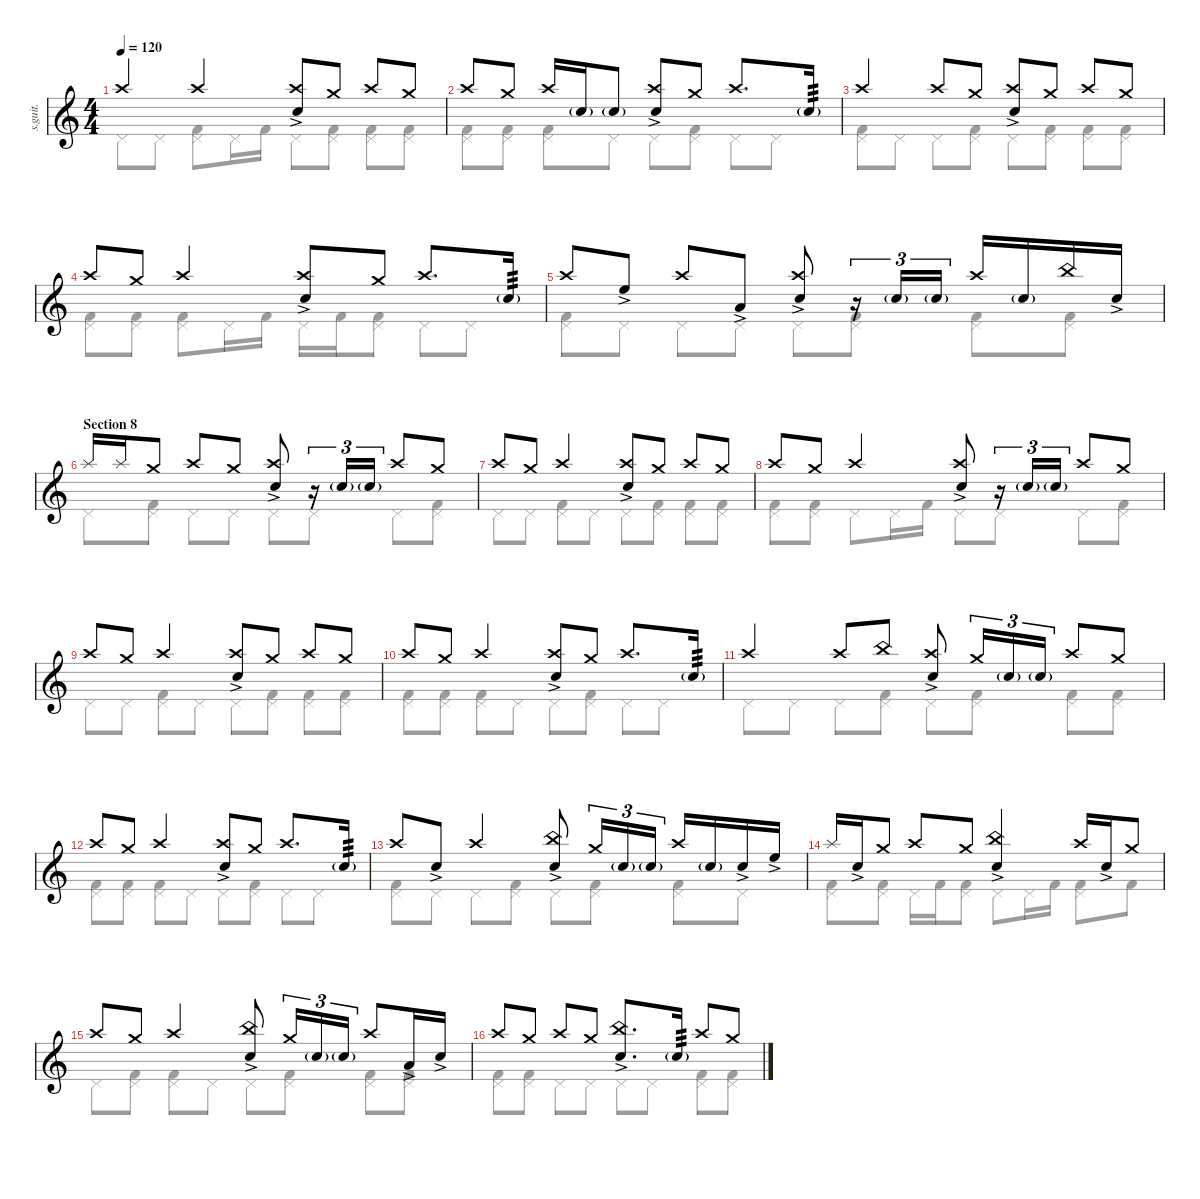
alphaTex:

\defaultSystemsLayout 4
\hideDynamics
\bracketExtendMode nobrackets
\track ("Matt Halpern" "s.guit.") {instrument percussion}
\staff {score}
\articulation defaults
\voice
\ts (4 4)
\tempo 120
\clef g2
\ks c "Crash high (hit)".4{lyrics (0 "") lyrics (1 "") lyrics (2 "") lyrics (3 "") lyrics (4 "") dy f} "Crash high (hit)".4{lyrics (0 "") lyrics (1 "") lyrics (2 "") lyrics (3 "") lyrics (4 "")}
("Crash high (hit)" "Snare (hit) 2"{ac}).8{lyrics (0 "") lyrics (1 "") lyrics (2 "") lyrics (3 "") lyrics (4 "")} "Crash medium (hit)".8{lyrics (0 "") lyrics (1 "") lyrics (2 "") lyrics (3 "") lyrics (4 "")} "Crash high (hit)".8{lyrics (0 "") lyrics (1 "") lyrics (2 "") lyrics (3 "") lyrics (4 "")} "Crash medium (hit)".8{lyrics (0 "") lyrics (1 "") lyrics (2 "") lyrics (3 "") lyrics (4 "")} |
"Crash high (hit)".8{lyrics (0 "") lyrics (1 "") lyrics (2 "") lyrics (3 "") lyrics (4 "")} "Crash medium (hit)".8{lyrics (0 "") lyrics (1 "") lyrics (2 "") lyrics (3 "") lyrics (4 "")} "Crash high (hit)".16{lyrics (0 "") lyrics (1 "") lyrics (2 "") lyrics (3 "") lyrics (4 "")} "Snare (hit) 2"{g}.16{lyrics (0 "") lyrics (1 "") lyrics (2 "") lyrics (3 "") lyrics (4 "")} "Snare (hit) 2"{g}.8{lyrics (0 "") lyrics (1 "") lyrics (2 "") lyrics (3 "") lyrics (4 "")} ("Crash high (hit)" "Snare (hit) 2"{ac}).8{lyrics (0 "") lyrics (1 "") lyrics (2 "") lyrics (3 "") lyrics (4 "")} "Crash medium (hit)".8{lyrics (0 "") lyrics (1 "") lyrics (2 "") lyrics (3 "") lyrics (4 "")} "Crash high (hit)".8{d lyrics (0 "") lyrics (1 "") lyrics (2 "") lyrics (3 "") lyrics (4 "")} "Snare (hit) 2"{g}.16{lyrics (0 "") lyrics (1 "") lyrics (2 "") lyrics (3 "") lyrics (4 "") tp 3} |
"Crash high (hit)".4{lyrics (0 "") lyrics (1 "") lyrics (2 "") lyrics (3 "") lyrics (4 "")} "Crash high (hit)".8{lyrics (0 "") lyrics (1 "") lyrics (2 "") lyrics (3 "") lyrics (4 "")} "Crash medium (hit)".8{lyrics (0 "") lyrics (1 "") lyrics (2 "") lyrics (3 "") lyrics (4 "")} ("Crash high (hit)" "Snare (hit) 2"{ac}).8{lyrics (0 "") lyrics (1 "") lyrics (2 "") lyrics (3 "") lyrics (4 "")} "Crash medium (hit)".8{lyrics (0 "") lyrics (1 "") lyrics (2 "") lyrics (3 "") lyrics (4 "")} "Crash high (hit)".8{lyrics (0 "") lyrics (1 "") lyrics (2 "") lyrics (3 "") lyrics (4 "")} "Crash medium (hit)".8{lyrics (0 "") lyrics (1 "") lyrics (2 "") lyrics (3 "") lyrics (4 "")} |
"Crash high (hit)".8{lyrics (0 "") lyrics (1 "") lyrics (2 "") lyrics (3 "") lyrics (4 "")} "Crash medium (hit)".8{lyrics (0 "") lyrics (1 "") lyrics (2 "") lyrics (3 "") lyrics (4 "")} "Crash high (hit)".4{lyrics (0 "") lyrics (1 "") lyrics (2 "") lyrics (3 "") lyrics (4 "")} ("Crash high (hit)" "Snare (hit) 2"{ac}).8{lyrics (0 "") lyrics (1 "") lyrics (2 "") lyrics (3 "") lyrics (4 "")} "Crash medium (hit)".8{lyrics (0 "") lyrics (1 "") lyrics (2 "") lyrics (3 "") lyrics (4 "")} "Crash high (hit)".8{d lyrics (0 "") lyrics (1 "") lyrics (2 "") lyrics (3 "") lyrics (4 "")} "Snare (hit) 2"{g}.16{lyrics (0 "") lyrics (1 "") lyrics (2 "") lyrics (3 "") lyrics (4 "") tp 3} |
"Crash high (hit)".8{lyrics (0 "") lyrics (1 "") lyrics (2 "") lyrics (3 "") lyrics (4 "")} "High Floor Tom (hit)"{ac}.8{lyrics (0 "") lyrics (1 "") lyrics (2 "") lyrics (3 "") lyrics (4 "")} "Crash high (hit)".8{lyrics (0 "") lyrics (1 "") lyrics (2 "") lyrics (3 "") lyrics (4 "")} "Low Tom (hit)"{ac}.8{lyrics (0 "") lyrics (1 "") lyrics (2 "") lyrics (3 "") lyrics (4 "")} ("Snare (hit) 2"{ac} "Crash high (hit)").8{lyrics (0 "") lyrics (1 "") lyrics (2 "") lyrics (3 "") lyrics (4 "")} r.16{tu (3 2)} "Snare (hit) 2"{g}.16{tu (3 2) lyrics (0 "") lyrics (1 "") lyrics (2 "") lyrics (3 "") lyrics (4 "")} "Snare (hit) 2"{g}.16{tu (3 2) lyrics (0 "") lyrics (1 "") lyrics (2 "") lyrics (3 "") lyrics (4 "")} "Crash high (hit)".16{lyrics (0 "") lyrics (1 "") lyrics (2 "") lyrics (3 "") lyrics (4 "")} "Snare (hit) 2"{g}.16{lyrics (0 "") lyrics (1 "") lyrics (2 "") lyrics (3 "") lyrics (4 "")} "China (hit)".16{lyrics (0 "") lyrics (1 "") lyrics (2 "") lyrics (3 "") lyrics (4 "")} "Snare (hit) 2"{ac}.16{lyrics (0 "") lyrics (1 "") lyrics (2 "") lyrics (3 "") lyrics (4 "")} |
\section ("" "Section 8")
"Splash (hit)".16{lyrics (0 "") lyrics (1 "") lyrics (2 "") lyrics (3 "") lyrics (4 "")} "Splash (hit)".16{lyrics (0 "") lyrics (1 "") lyrics (2 "") lyrics (3 "") lyrics (4 "")} "Crash medium (hit)".8{lyrics (0 "") lyrics (1 "") lyrics (2 "") lyrics (3 "") lyrics (4 "")} "Crash high (hit)".8{lyrics (0 "") lyrics (1 "") lyrics (2 "") lyrics (3 "") lyrics (4 "")} "Crash medium (hit)".8{lyrics (0 "") lyrics (1 "") lyrics (2 "") lyrics (3 "") lyrics (4 "")} ("Crash high (hit)" "Snare (hit) 2"{ac}).8{lyrics (0 "") lyrics (1 "") lyrics (2 "") lyrics (3 "") lyrics (4 "")} r.16{tu (3 2)} "Snare (hit) 2"{g}.16{tu (3 2) lyrics (0 "") lyrics (1 "") lyrics (2 "") lyrics (3 "") lyrics (4 "")} "Snare (hit) 2"{g}.16{tu (3 2) lyrics (0 "") lyrics (1 "") lyrics (2 "") lyrics (3 "") lyrics (4 "")} "Crash high (hit)".8{lyrics (0 "") lyrics (1 "") lyrics (2 "") lyrics (3 "") lyrics (4 "")} "Crash medium (hit)".8{lyrics (0 "") lyrics (1 "") lyrics (2 "") lyrics (3 "") lyrics (4 "")} |
"Crash high (hit)".8{lyrics (0 "") lyrics (1 "") lyrics (2 "") lyrics (3 "") lyrics (4 "")} "Crash medium (hit)".8{lyrics (0 "") lyrics (1 "") lyrics (2 "") lyrics (3 "") lyrics (4 "")} "Crash high (hit)".4{lyrics (0 "") lyrics (1 "") lyrics (2 "") lyrics (3 "") lyrics (4 "")} ("Crash high (hit)" "Snare (hit) 2"{ac}).8{lyrics (0 "") lyrics (1 "") lyrics (2 "") lyrics (3 "") lyrics (4 "")} "Crash medium (hit)".8{lyrics (0 "") lyrics (1 "") lyrics (2 "") lyrics (3 "") lyrics (4 "")} "Crash high (hit)".8{lyrics (0 "") lyrics (1 "") lyrics (2 "") lyrics (3 "") lyrics (4 "")} "Crash medium (hit)".8{lyrics (0 "") lyrics (1 "") lyrics (2 "") lyrics (3 "") lyrics (4 "")} |
"Crash high (hit)".8{lyrics (0 "") lyrics (1 "") lyrics (2 "") lyrics (3 "") lyrics (4 "")} "Crash medium (hit)".8{lyrics (0 "") lyrics (1 "") lyrics (2 "") lyrics (3 "") lyrics (4 "")} "Crash high (hit)".4{lyrics (0 "") lyrics (1 "") lyrics (2 "") lyrics (3 "") lyrics (4 "")} ("Crash high (hit)" "Snare (hit) 2"{ac}).8{lyrics (0 "") lyrics (1 "") lyrics (2 "") lyrics (3 "") lyrics (4 "")} r.16{tu (3 2)} "Snare (hit) 2"{g}.16{tu (3 2) lyrics (0 "") lyrics (1 "") lyrics (2 "") lyrics (3 "") lyrics (4 "")} "Snare (hit) 2"{g}.16{tu (3 2) lyrics (0 "") lyrics (1 "") lyrics (2 "") lyrics (3 "") lyrics (4 "")} "Crash high (hit)".8{lyrics (0 "") lyrics (1 "") lyrics (2 "") lyrics (3 "") lyrics (4 "")} "Crash medium (hit)".8{lyrics (0 "") lyrics (1 "") lyrics (2 "") lyrics (3 "") lyrics (4 "")} |
"Crash high (hit)".8{lyrics (0 "") lyrics (1 "") lyrics (2 "") lyrics (3 "") lyrics (4 "")} "Crash medium (hit)".8{lyrics (0 "") lyrics (1 "") lyrics (2 "") lyrics (3 "") lyrics (4 "")} "Crash high (hit)".4{lyrics (0 "") lyrics (1 "") lyrics (2 "") lyrics (3 "") lyrics (4 "")} ("Crash high (hit)" "Snare (hit) 2"{ac}).8{lyrics (0 "") lyrics (1 "") lyrics (2 "") lyrics (3 "") lyrics (4 "")} "Crash medium (hit)".8{lyrics (0 "") lyrics (1 "") lyrics (2 "") lyrics (3 "") lyrics (4 "")} "Crash high (hit)".8{lyrics (0 "") lyrics (1 "") lyrics (2 "") lyrics (3 "") lyrics (4 "")} "Crash medium (hit)".8{lyrics (0 "") lyrics (1 "") lyrics (2 "") lyrics (3 "") lyrics (4 "")} |
"Crash high (hit)".8{lyrics (0 "") lyrics (1 "") lyrics (2 "") lyrics (3 "") lyrics (4 "")} "Crash medium (hit)".8{lyrics (0 "") lyrics (1 "") lyrics (2 "") lyrics (3 "") lyrics (4 "")} "Crash high (hit)".4{lyrics (0 "") lyrics (1 "") lyrics (2 "") lyrics (3 "") lyrics (4 "")} ("Crash high (hit)" "Snare (hit) 2"{ac}).8{lyrics (0 "") lyrics (1 "") lyrics (2 "") lyrics (3 "") lyrics (4 "")} "Crash medium (hit)".8{lyrics (0 "") lyrics (1 "") lyrics (2 "") lyrics (3 "") lyrics (4 "")} "Crash high (hit)".8{d lyrics (0 "") lyrics (1 "") lyrics (2 "") lyrics (3 "") lyrics (4 "")} "Snare (hit) 2"{g}.16{lyrics (0 "") lyrics (1 "") lyrics (2 "") lyrics (3 "") lyrics (4 "") tp 3} |
"Crash high (hit)".4{lyrics (0 "") lyrics (1 "") lyrics (2 "") lyrics (3 "") lyrics (4 "")} "Crash high (hit)".8{lyrics (0 "") lyrics (1 "") lyrics (2 "") lyrics (3 "") lyrics (4 "")} "China (hit)".8{lyrics (0 "") lyrics (1 "") lyrics (2 "") lyrics (3 "") lyrics (4 "")} ("Crash high (hit)" "Snare (hit) 2"{ac}).8{lyrics (0 "") lyrics (1 "") lyrics (2 "") lyrics (3 "") lyrics (4 "")} "Crash medium (hit)".16{tu (3 2) lyrics (0 "") lyrics (1 "") lyrics (2 "") lyrics (3 "") lyrics (4 "")} "Snare (hit) 2"{g}.16{tu (3 2) lyrics (0 "") lyrics (1 "") lyrics (2 "") lyrics (3 "") lyrics (4 "")} "Snare (hit) 2"{g}.16{tu (3 2) lyrics (0 "") lyrics (1 "") lyrics (2 "") lyrics (3 "") lyrics (4 "")} "Crash high (hit)".8{lyrics (0 "") lyrics (1 "") lyrics (2 "") lyrics (3 "") lyrics (4 "")} "Crash medium (hit)".8{lyrics (0 "") lyrics (1 "") lyrics (2 "") lyrics (3 "") lyrics (4 "")} |
"Crash high (hit)".8{lyrics (0 "") lyrics (1 "") lyrics (2 "") lyrics (3 "") lyrics (4 "")} "Crash medium (hit)".8{lyrics (0 "") lyrics (1 "") lyrics (2 "") lyrics (3 "") lyrics (4 "")} "Crash high (hit)".4{lyrics (0 "") lyrics (1 "") lyrics (2 "") lyrics (3 "") lyrics (4 "")} ("Crash high (hit)" "Snare (hit) 2"{ac}).8{lyrics (0 "") lyrics (1 "") lyrics (2 "") lyrics (3 "") lyrics (4 "")} "Crash medium (hit)".8{lyrics (0 "") lyrics (1 "") lyrics (2 "") lyrics (3 "") lyrics (4 "")} "Crash high (hit)".8{d lyrics (0 "") lyrics (1 "") lyrics (2 "") lyrics (3 "") lyrics (4 "")} "Snare (hit) 2"{g}.16{lyrics (0 "") lyrics (1 "") lyrics (2 "") lyrics (3 "") lyrics (4 "") tp 3} |
"Crash high (hit)".8{lyrics (0 "") lyrics (1 "") lyrics (2 "") lyrics (3 "") lyrics (4 "")} "Snare (hit) 2"{ac}.8{lyrics (0 "") lyrics (1 "") lyrics (2 "") lyrics (3 "") lyrics (4 "")} "Crash high (hit)".4{lyrics (0 "") lyrics (1 "") lyrics (2 "") lyrics (3 "") lyrics (4 "")} ("Snare (hit) 2"{ac} "China (hit)").8{lyrics (0 "") lyrics (1 "") lyrics (2 "") lyrics (3 "") lyrics (4 "")} "Crash medium (hit)".16{tu (3 2) lyrics (0 "") lyrics (1 "") lyrics (2 "") lyrics (3 "") lyrics (4 "")} "Snare (hit) 2"{g}.16{tu (3 2) lyrics (0 "") lyrics (1 "") lyrics (2 "") lyrics (3 "") lyrics (4 "")} "Snare (hit) 2"{g}.16{tu (3 2) lyrics (0 "") lyrics (1 "") lyrics (2 "") lyrics (3 "") lyrics (4 "")} "Crash high (hit)".16{lyrics (0 "") lyrics (1 "") lyrics (2 "") lyrics (3 "") lyrics (4 "")} "Snare (hit) 2"{g}.16{lyrics (0 "") lyrics (1 "") lyrics (2 "") lyrics (3 "") lyrics (4 "")} "Snare (hit) 2"{ac}.16{lyrics (0 "") lyrics (1 "") lyrics (2 "") lyrics (3 "") lyrics (4 "")} "High Floor Tom (hit)"{ac}.16{lyrics (0 "") lyrics (1 "") lyrics (2 "") lyrics (3 "") lyrics (4 "")} |
"Splash (hit)".16{lyrics (0 "") lyrics (1 "") lyrics (2 "") lyrics (3 "") lyrics (4 "")} "Snare (hit) 2"{ac}.16{lyrics (0 "") lyrics (1 "") lyrics (2 "") lyrics (3 "") lyrics (4 "")} "Crash medium (hit)".8{lyrics (0 "") lyrics (1 "") lyrics (2 "") lyrics (3 "") lyrics (4 "")} "Crash high (hit)".8{lyrics (0 "") lyrics (1 "") lyrics (2 "") lyrics (3 "") lyrics (4 "")} "Crash medium (hit)".8{lyrics (0 "") lyrics (1 "") lyrics (2 "") lyrics (3 "") lyrics (4 "")} ("Snare (hit) 2"{ac} "China (hit)").4{lyrics (0 "") lyrics (1 "") lyrics (2 "") lyrics (3 "") lyrics (4 "")} "Crash high (hit)".16{lyrics (0 "") lyrics (1 "") lyrics (2 "") lyrics (3 "") lyrics (4 "")} "Snare (hit) 2"{ac}.16{lyrics (0 "") lyrics (1 "") lyrics (2 "") lyrics (3 "") lyrics (4 "")} "Crash medium (hit)".8{lyrics (0 "") lyrics (1 "") lyrics (2 "") lyrics (3 "") lyrics (4 "")} |
"Crash high (hit)".8{lyrics (0 "") lyrics (1 "") lyrics (2 "") lyrics (3 "") lyrics (4 "") dy mf} "Crash medium (hit)".8{lyrics (0 "") lyrics (1 "") lyrics (2 "") lyrics (3 "") lyrics (4 "")} "Crash high (hit)".4{lyrics (0 "") lyrics (1 "") lyrics (2 "") lyrics (3 "") lyrics (4 "")} ("China (hit)" "Snare (hit) 2"{ac}).8{lyrics (0 "") lyrics (1 "") lyrics (2 "") lyrics (3 "") lyrics (4 "") dy f} "Crash medium (hit)".16{tu (3 2) lyrics (0 "") lyrics (1 "") lyrics (2 "") lyrics (3 "") lyrics (4 "")} "Snare (hit) 2"{g}.16{tu (3 2) lyrics (0 "") lyrics (1 "") lyrics (2 "") lyrics (3 "") lyrics (4 "")} "Snare (hit) 2"{g}.16{tu (3 2) lyrics (0 "") lyrics (1 "") lyrics (2 "") lyrics (3 "") lyrics (4 "")} "Crash high (hit)".8{lyrics (0 "") lyrics (1 "") lyrics (2 "") lyrics (3 "") lyrics (4 "")} "Low Tom (hit)"{ac}.16{lyrics (0 "") lyrics (1 "") lyrics (2 "") lyrics (3 "") lyrics (4 "")} "Snare (hit) 2"{ac}.16{lyrics (0 "") lyrics (1 "") lyrics (2 "") lyrics (3 "") lyrics (4 "")} |
"Crash high (hit)".8{lyrics (0 "") lyrics (1 "") lyrics (2 "") lyrics (3 "") lyrics (4 "")} "Crash medium (hit)".8{lyrics (0 "") lyrics (1 "") lyrics (2 "") lyrics (3 "") lyrics (4 "")} "Crash high (hit)".8{lyrics (0 "") lyrics (1 "") lyrics (2 "") lyrics (3 "") lyrics (4 "")} "Crash medium (hit)".8{lyrics (0 "") lyrics (1 "") lyrics (2 "") lyrics (3 "") lyrics (4 "")} ("China (hit)" "Snare (hit) 2"{ac}).8{d lyrics (0 "") lyrics (1 "") lyrics (2 "") lyrics (3 "") lyrics (4 "")} "Snare (hit) 2"{g}.16{lyrics (0 "") lyrics (1 "") lyrics (2 "") lyrics (3 "") lyrics (4 "") tp 3} "Crash high (hit)".8{lyrics (0 "") lyrics (1 "") lyrics (2 "") lyrics (3 "") lyrics (4 "")} "Crash medium (hit)".8{lyrics (0 "") lyrics (1 "") lyrics (2 "") lyrics (3 "") lyrics (4 "")}
\voice
\clef g2
\ottava regular
\simile none
\ks c "Pedal Hi-Hat (hit)".8{lyrics (0 "") lyrics (1 "") lyrics (2 "") lyrics (3 "") lyrics (4 "") dy f} "Pedal Hi-Hat (hit)".8{lyrics (0 "") lyrics (1 "") lyrics (2 "") lyrics (3 "") lyrics (4 "")}
("Pedal Hi-Hat (hit)" "Kick (hit) 2").8{lyrics (0 "") lyrics (1 "") lyrics (2 "") lyrics (3 "") lyrics (4 "")} "Pedal Hi-Hat (hit)".16{lyrics (0 "") lyrics (1 "") lyrics (2 "") lyrics (3 "") lyrics (4 "")} "Kick (hit) 2".16{lyrics (0 "") lyrics (1 "") lyrics (2 "") lyrics (3 "") lyrics (4 "")} "Pedal Hi-Hat (hit)".8{lyrics (0 "") lyrics (1 "") lyrics (2 "") lyrics (3 "") lyrics (4 "")} ("Pedal Hi-Hat (hit)" "Kick (hit) 2").8{lyrics (0 "") lyrics (1 "") lyrics (2 "") lyrics (3 "") lyrics (4 "")} ("Pedal Hi-Hat (hit)" "Kick (hit) 2").8{lyrics (0 "") lyrics (1 "") lyrics (2 "") lyrics (3 "") lyrics (4 "")} ("Pedal Hi-Hat (hit)" "Kick (hit) 2").8{lyrics (0 "") lyrics (1 "") lyrics (2 "") lyrics (3 "") lyrics (4 "")} |
("Pedal Hi-Hat (hit)" "Kick (hit) 2").8{lyrics (0 "") lyrics (1 "") lyrics (2 "") lyrics (3 "") lyrics (4 "")} ("Pedal Hi-Hat (hit)" "Kick (hit) 2").8{lyrics (0 "") lyrics (1 "") lyrics (2 "") lyrics (3 "") lyrics (4 "")} ("Pedal Hi-Hat (hit)" "Kick (hit) 2").8{lyrics (0 "") lyrics (1 "") lyrics (2 "") lyrics (3 "") lyrics (4 "")} "Pedal Hi-Hat (hit)".8{lyrics (0 "") lyrics (1 "") lyrics (2 "") lyrics (3 "") lyrics (4 "")} "Pedal Hi-Hat (hit)".8{lyrics (0 "") lyrics (1 "") lyrics (2 "") lyrics (3 "") lyrics (4 "")} ("Pedal Hi-Hat (hit)" "Kick (hit) 2").8{lyrics (0 "") lyrics (1 "") lyrics (2 "") lyrics (3 "") lyrics (4 "")} "Pedal Hi-Hat (hit)".8{lyrics (0 "") lyrics (1 "") lyrics (2 "") lyrics (3 "") lyrics (4 "")} "Pedal Hi-Hat (hit)".8{lyrics (0 "") lyrics (1 "") lyrics (2 "") lyrics (3 "") lyrics (4 "")} |
("Pedal Hi-Hat (hit)" "Kick (hit) 2").8{lyrics (0 "") lyrics (1 "") lyrics (2 "") lyrics (3 "") lyrics (4 "")} "Pedal Hi-Hat (hit)".8{lyrics (0 "") lyrics (1 "") lyrics (2 "") lyrics (3 "") lyrics (4 "")} "Pedal Hi-Hat (hit)".8{lyrics (0 "") lyrics (1 "") lyrics (2 "") lyrics (3 "") lyrics (4 "")} ("Pedal Hi-Hat (hit)" "Kick (hit) 2").8{lyrics (0 "") lyrics (1 "") lyrics (2 "") lyrics (3 "") lyrics (4 "")} "Pedal Hi-Hat (hit)".8{lyrics (0 "") lyrics (1 "") lyrics (2 "") lyrics (3 "") lyrics (4 "")} ("Pedal Hi-Hat (hit)" "Kick (hit) 2").8{lyrics (0 "") lyrics (1 "") lyrics (2 "") lyrics (3 "") lyrics (4 "")} ("Pedal Hi-Hat (hit)" "Kick (hit) 2").8{lyrics (0 "") lyrics (1 "") lyrics (2 "") lyrics (3 "") lyrics (4 "")} ("Pedal Hi-Hat (hit)" "Kick (hit) 2").8{lyrics (0 "") lyrics (1 "") lyrics (2 "") lyrics (3 "") lyrics (4 "")} |
("Pedal Hi-Hat (hit)" "Kick (hit) 2").8{lyrics (0 "") lyrics (1 "") lyrics (2 "") lyrics (3 "") lyrics (4 "")} ("Pedal Hi-Hat (hit)" "Kick (hit) 2").8{lyrics (0 "") lyrics (1 "") lyrics (2 "") lyrics (3 "") lyrics (4 "")} ("Pedal Hi-Hat (hit)" "Kick (hit) 2").8{lyrics (0 "") lyrics (1 "") lyrics (2 "") lyrics (3 "") lyrics (4 "")} "Pedal Hi-Hat (hit)".16{lyrics (0 "") lyrics (1 "") lyrics (2 "") lyrics (3 "") lyrics (4 "")} "Kick (hit) 2".16{lyrics (0 "") lyrics (1 "") lyrics (2 "") lyrics (3 "") lyrics (4 "")} "Pedal Hi-Hat (hit)".16{lyrics (0 "") lyrics (1 "") lyrics (2 "") lyrics (3 "") lyrics (4 "")} "Kick (hit) 2".16{lyrics (0 "") lyrics (1 "") lyrics (2 "") lyrics (3 "") lyrics (4 "")} ("Pedal Hi-Hat (hit)" "Kick (hit) 2").8{lyrics (0 "") lyrics (1 "") lyrics (2 "") lyrics (3 "") lyrics (4 "")} "Pedal Hi-Hat (hit)".8{lyrics (0 "") lyrics (1 "") lyrics (2 "") lyrics (3 "") lyrics (4 "")} "Pedal Hi-Hat (hit)".8{lyrics (0 "") lyrics (1 "") lyrics (2 "") lyrics (3 "") lyrics (4 "")} |
("Pedal Hi-Hat (hit)" "Kick (hit) 2").8{lyrics (0 "") lyrics (1 "") lyrics (2 "") lyrics (3 "") lyrics (4 "")} "Pedal Hi-Hat (hit)".8{lyrics (0 "") lyrics (1 "") lyrics (2 "") lyrics (3 "") lyrics (4 "")} "Pedal Hi-Hat (hit)".8{lyrics (0 "") lyrics (1 "") lyrics (2 "") lyrics (3 "") lyrics (4 "")} "Pedal Hi-Hat (hit)".8{lyrics (0 "") lyrics (1 "") lyrics (2 "") lyrics (3 "") lyrics (4 "")} "Pedal Hi-Hat (hit)".8{lyrics (0 "") lyrics (1 "") lyrics (2 "") lyrics (3 "") lyrics (4 "")} ("Pedal Hi-Hat (hit)" "Kick (hit) 2").8{lyrics (0 "") lyrics (1 "") lyrics (2 "") lyrics (3 "") lyrics (4 "")} ("Pedal Hi-Hat (hit)" "Kick (hit) 2").8{lyrics (0 "") lyrics (1 "") lyrics (2 "") lyrics (3 "") lyrics (4 "")} ("Pedal Hi-Hat (hit)" "Kick (hit) 2").8{lyrics (0 "") lyrics (1 "") lyrics (2 "") lyrics (3 "") lyrics (4 "")} |
"Pedal Hi-Hat (hit)".8{lyrics (0 "") lyrics (1 "") lyrics (2 "") lyrics (3 "") lyrics (4 "")} ("Kick (hit) 2" "Pedal Hi-Hat (hit)").8{lyrics (0 "") lyrics (1 "") lyrics (2 "") lyrics (3 "") lyrics (4 "")} "Pedal Hi-Hat (hit)".8{lyrics (0 "") lyrics (1 "") lyrics (2 "") lyrics (3 "") lyrics (4 "")} "Pedal Hi-Hat (hit)".8{lyrics (0 "") lyrics (1 "") lyrics (2 "") lyrics (3 "") lyrics (4 "")} "Pedal Hi-Hat (hit)".8{lyrics (0 "") lyrics (1 "") lyrics (2 "") lyrics (3 "") lyrics (4 "")} "Pedal Hi-Hat (hit)".8{lyrics (0 "") lyrics (1 "") lyrics (2 "") lyrics (3 "") lyrics (4 "")} "Pedal Hi-Hat (hit)".8{lyrics (0 "") lyrics (1 "") lyrics (2 "") lyrics (3 "") lyrics (4 "")} ("Pedal Hi-Hat (hit)" "Kick (hit) 2").8{lyrics (0 "") lyrics (1 "") lyrics (2 "") lyrics (3 "") lyrics (4 "")} |
"Pedal Hi-Hat (hit)".8{lyrics (0 "") lyrics (1 "") lyrics (2 "") lyrics (3 "") lyrics (4 "")} "Pedal Hi-Hat (hit)".8{lyrics (0 "") lyrics (1 "") lyrics (2 "") lyrics (3 "") lyrics (4 "")} ("Pedal Hi-Hat (hit)" "Kick (hit) 2").8{lyrics (0 "") lyrics (1 "") lyrics (2 "") lyrics (3 "") lyrics (4 "")} "Pedal Hi-Hat (hit)".8{lyrics (0 "") lyrics (1 "") lyrics (2 "") lyrics (3 "") lyrics (4 "")} "Pedal Hi-Hat (hit)".8{lyrics (0 "") lyrics (1 "") lyrics (2 "") lyrics (3 "") lyrics (4 "")} ("Pedal Hi-Hat (hit)" "Kick (hit) 2").8{lyrics (0 "") lyrics (1 "") lyrics (2 "") lyrics (3 "") lyrics (4 "")} ("Pedal Hi-Hat (hit)" "Kick (hit) 2").8{lyrics (0 "") lyrics (1 "") lyrics (2 "") lyrics (3 "") lyrics (4 "")} ("Pedal Hi-Hat (hit)" "Kick (hit) 2").8{lyrics (0 "") lyrics (1 "") lyrics (2 "") lyrics (3 "") lyrics (4 "")} |
("Pedal Hi-Hat (hit)" "Kick (hit) 2").8{lyrics (0 "") lyrics (1 "") lyrics (2 "") lyrics (3 "") lyrics (4 "")} ("Pedal Hi-Hat (hit)" "Kick (hit) 2").8{lyrics (0 "") lyrics (1 "") lyrics (2 "") lyrics (3 "") lyrics (4 "")} "Pedal Hi-Hat (hit)".8{lyrics (0 "") lyrics (1 "") lyrics (2 "") lyrics (3 "") lyrics (4 "")} "Pedal Hi-Hat (hit)".16{lyrics (0 "") lyrics (1 "") lyrics (2 "") lyrics (3 "") lyrics (4 "")} "Kick (hit) 2".16{lyrics (0 "") lyrics (1 "") lyrics (2 "") lyrics (3 "") lyrics (4 "")} "Pedal Hi-Hat (hit)".8{lyrics (0 "") lyrics (1 "") lyrics (2 "") lyrics (3 "") lyrics (4 "")} "Pedal Hi-Hat (hit)".8{lyrics (0 "") lyrics (1 "") lyrics (2 "") lyrics (3 "") lyrics (4 "")} "Pedal Hi-Hat (hit)".8{lyrics (0 "") lyrics (1 "") lyrics (2 "") lyrics (3 "") lyrics (4 "")} ("Pedal Hi-Hat (hit)" "Kick (hit) 2").8{lyrics (0 "") lyrics (1 "") lyrics (2 "") lyrics (3 "") lyrics (4 "")} |
"Pedal Hi-Hat (hit)".8{lyrics (0 "") lyrics (1 "") lyrics (2 "") lyrics (3 "") lyrics (4 "")} "Pedal Hi-Hat (hit)".8{lyrics (0 "") lyrics (1 "") lyrics (2 "") lyrics (3 "") lyrics (4 "")} ("Pedal Hi-Hat (hit)" "Kick (hit) 2").8{lyrics (0 "") lyrics (1 "") lyrics (2 "") lyrics (3 "") lyrics (4 "")} "Pedal Hi-Hat (hit)".8{lyrics (0 "") lyrics (1 "") lyrics (2 "") lyrics (3 "") lyrics (4 "")} "Pedal Hi-Hat (hit)".8{lyrics (0 "") lyrics (1 "") lyrics (2 "") lyrics (3 "") lyrics (4 "")} ("Pedal Hi-Hat (hit)" "Kick (hit) 2").8{lyrics (0 "") lyrics (1 "") lyrics (2 "") lyrics (3 "") lyrics (4 "")} ("Pedal Hi-Hat (hit)" "Kick (hit) 2").8{lyrics (0 "") lyrics (1 "") lyrics (2 "") lyrics (3 "") lyrics (4 "")} ("Pedal Hi-Hat (hit)" "Kick (hit) 2").8{lyrics (0 "") lyrics (1 "") lyrics (2 "") lyrics (3 "") lyrics (4 "")} |
("Kick (hit) 2" "Pedal Hi-Hat (hit)").8{lyrics (0 "") lyrics (1 "") lyrics (2 "") lyrics (3 "") lyrics (4 "")} ("Kick (hit) 2" "Pedal Hi-Hat (hit)").8{lyrics (0 "") lyrics (1 "") lyrics (2 "") lyrics (3 "") lyrics (4 "")} ("Kick (hit) 2" "Pedal Hi-Hat (hit)").8{lyrics (0 "") lyrics (1 "") lyrics (2 "") lyrics (3 "") lyrics (4 "")} "Pedal Hi-Hat (hit)".8{lyrics (0 "") lyrics (1 "") lyrics (2 "") lyrics (3 "") lyrics (4 "")} "Pedal Hi-Hat (hit)".8{lyrics (0 "") lyrics (1 "") lyrics (2 "") lyrics (3 "") lyrics (4 "")} ("Pedal Hi-Hat (hit)" "Kick (hit) 2").8{lyrics (0 "") lyrics (1 "") lyrics (2 "") lyrics (3 "") lyrics (4 "")} "Pedal Hi-Hat (hit)".8{lyrics (0 "") lyrics (1 "") lyrics (2 "") lyrics (3 "") lyrics (4 "")} "Pedal Hi-Hat (hit)".8{lyrics (0 "") lyrics (1 "") lyrics (2 "") lyrics (3 "") lyrics (4 "")} |
"Pedal Hi-Hat (hit)".8{lyrics (0 "") lyrics (1 "") lyrics (2 "") lyrics (3 "") lyrics (4 "")} "Pedal Hi-Hat (hit)".8{lyrics (0 "") lyrics (1 "") lyrics (2 "") lyrics (3 "") lyrics (4 "")} "Pedal Hi-Hat (hit)".8{lyrics (0 "") lyrics (1 "") lyrics (2 "") lyrics (3 "") lyrics (4 "")} ("Pedal Hi-Hat (hit)" "Kick (hit) 2").8{lyrics (0 "") lyrics (1 "") lyrics (2 "") lyrics (3 "") lyrics (4 "")} "Pedal Hi-Hat (hit)".8{lyrics (0 "") lyrics (1 "") lyrics (2 "") lyrics (3 "") lyrics (4 "")} ("Pedal Hi-Hat (hit)" "Kick (hit) 2").8{lyrics (0 "") lyrics (1 "") lyrics (2 "") lyrics (3 "") lyrics (4 "")} ("Pedal Hi-Hat (hit)" "Kick (hit) 2").8{lyrics (0 "") lyrics (1 "") lyrics (2 "") lyrics (3 "") lyrics (4 "")} ("Pedal Hi-Hat (hit)" "Kick (hit) 2").8{lyrics (0 "") lyrics (1 "") lyrics (2 "") lyrics (3 "") lyrics (4 "")} |
("Kick (hit) 2" "Pedal Hi-Hat (hit)").8{lyrics (0 "") lyrics (1 "") lyrics (2 "") lyrics (3 "") lyrics (4 "")} ("Kick (hit) 2" "Pedal Hi-Hat (hit)").8{lyrics (0 "") lyrics (1 "") lyrics (2 "") lyrics (3 "") lyrics (4 "")} ("Kick (hit) 2" "Pedal Hi-Hat (hit)").8{lyrics (0 "") lyrics (1 "") lyrics (2 "") lyrics (3 "") lyrics (4 "")} "Pedal Hi-Hat (hit)".8{lyrics (0 "") lyrics (1 "") lyrics (2 "") lyrics (3 "") lyrics (4 "")} "Pedal Hi-Hat (hit)".8{lyrics (0 "") lyrics (1 "") lyrics (2 "") lyrics (3 "") lyrics (4 "")} ("Pedal Hi-Hat (hit)" "Kick (hit) 2").8{lyrics (0 "") lyrics (1 "") lyrics (2 "") lyrics (3 "") lyrics (4 "")} "Pedal Hi-Hat (hit)".8{lyrics (0 "") lyrics (1 "") lyrics (2 "") lyrics (3 "") lyrics (4 "")} "Pedal Hi-Hat (hit)".8{lyrics (0 "") lyrics (1 "") lyrics (2 "") lyrics (3 "") lyrics (4 "")} |
("Pedal Hi-Hat (hit)" "Kick (hit) 2").8{lyrics (0 "") lyrics (1 "") lyrics (2 "") lyrics (3 "") lyrics (4 "")} "Pedal Hi-Hat (hit)".8{lyrics (0 "") lyrics (1 "") lyrics (2 "") lyrics (3 "") lyrics (4 "")} "Pedal Hi-Hat (hit)".8{lyrics (0 "") lyrics (1 "") lyrics (2 "") lyrics (3 "") lyrics (4 "")} ("Pedal Hi-Hat (hit)" "Kick (hit) 2").8{lyrics (0 "") lyrics (1 "") lyrics (2 "") lyrics (3 "") lyrics (4 "")} "Pedal Hi-Hat (hit)".8{lyrics (0 "") lyrics (1 "") lyrics (2 "") lyrics (3 "") lyrics (4 "")} ("Pedal Hi-Hat (hit)" "Kick (hit) 2").8{lyrics (0 "") lyrics (1 "") lyrics (2 "") lyrics (3 "") lyrics (4 "")} ("Pedal Hi-Hat (hit)" "Kick (hit) 2").8{lyrics (0 "") lyrics (1 "") lyrics (2 "") lyrics (3 "") lyrics (4 "")} "Pedal Hi-Hat (hit)".8{lyrics (0 "") lyrics (1 "") lyrics (2 "") lyrics (3 "") lyrics (4 "")} |
("Pedal Hi-Hat (hit)" "Kick (hit) 2").8{lyrics (0 "") lyrics (1 "") lyrics (2 "") lyrics (3 "") lyrics (4 "")} ("Kick (hit) 2" "Pedal Hi-Hat (hit)").8{lyrics (0 "") lyrics (1 "") lyrics (2 "") lyrics (3 "") lyrics (4 "")} "Pedal Hi-Hat (hit)".16{lyrics (0 "") lyrics (1 "") lyrics (2 "") lyrics (3 "") lyrics (4 "")} "Kick (hit) 2".16{lyrics (0 "") lyrics (1 "") lyrics (2 "") lyrics (3 "") lyrics (4 "")} ("Kick (hit) 2" "Pedal Hi-Hat (hit)").8{lyrics (0 "") lyrics (1 "") lyrics (2 "") lyrics (3 "") lyrics (4 "")} "Pedal Hi-Hat (hit)".8{lyrics (0 "") lyrics (1 "") lyrics (2 "") lyrics (3 "") lyrics (4 "")} "Pedal Hi-Hat (hit)".16{lyrics (0 "") lyrics (1 "") lyrics (2 "") lyrics (3 "") lyrics (4 "")} "Kick (hit) 2".16{lyrics (0 "") lyrics (1 "") lyrics (2 "") lyrics (3 "") lyrics (4 "")} ("Kick (hit) 2" "Pedal Hi-Hat (hit)").8{lyrics (0 "") lyrics (1 "") lyrics (2 "") lyrics (3 "") lyrics (4 "")} "Kick (hit) 2".8{lyrics (0 "") lyrics (1 "") lyrics (2 "") lyrics (3 "") lyrics (4 "")} |
"Pedal Hi-Hat (hit)".8{lyrics (0 "") lyrics (1 "") lyrics (2 "") lyrics (3 "") lyrics (4 "")} ("Pedal Hi-Hat (hit)" "Kick (hit) 2").8{lyrics (0 "") lyrics (1 "") lyrics (2 "") lyrics (3 "") lyrics (4 "")} ("Kick (hit) 2" "Pedal Hi-Hat (hit)").8{lyrics (0 "") lyrics (1 "") lyrics (2 "") lyrics (3 "") lyrics (4 "")} "Pedal Hi-Hat (hit)".8{lyrics (0 "") lyrics (1 "") lyrics (2 "") lyrics (3 "") lyrics (4 "")} "Pedal Hi-Hat (hit)".8{lyrics (0 "") lyrics (1 "") lyrics (2 "") lyrics (3 "") lyrics (4 "")} ("Pedal Hi-Hat (hit)" "Kick (hit) 2").8{lyrics (0 "") lyrics (1 "") lyrics (2 "") lyrics (3 "") lyrics (4 "")} ("Pedal Hi-Hat (hit)" "Kick (hit) 2").8{lyrics (0 "") lyrics (1 "") lyrics (2 "") lyrics (3 "") lyrics (4 "")} ("Pedal Hi-Hat (hit)" "Kick (hit) 2").8{lyrics (0 "") lyrics (1 "") lyrics (2 "") lyrics (3 "") lyrics (4 "")} |
("Kick (hit) 2" "Pedal Hi-Hat (hit)").8{lyrics (0 "") lyrics (1 "") lyrics (2 "") lyrics (3 "") lyrics (4 "")} ("Kick (hit) 2" "Pedal Hi-Hat (hit)").8{lyrics (0 "") lyrics (1 "") lyrics (2 "") lyrics (3 "") lyrics (4 "")} "Pedal Hi-Hat (hit)".8{lyrics (0 "") lyrics (1 "") lyrics (2 "") lyrics (3 "") lyrics (4 "")} "Pedal Hi-Hat (hit)".8{lyrics (0 "") lyrics (1 "") lyrics (2 "") lyrics (3 "") lyrics (4 "")} "Pedal Hi-Hat (hit)".8{lyrics (0 "") lyrics (1 "") lyrics (2 "") lyrics (3 "") lyrics (4 "")} "Pedal Hi-Hat (hit)".8{lyrics (0 "") lyrics (1 "") lyrics (2 "") lyrics (3 "") lyrics (4 "")} ("Pedal Hi-Hat (hit)" "Kick (hit) 2").8{lyrics (0 "") lyrics (1 "") lyrics (2 "") lyrics (3 "") lyrics (4 "")} ("Pedal Hi-Hat (hit)" "Kick (hit) 2").8{lyrics (0 "") lyrics (1 "") lyrics (2 "") lyrics (3 "") lyrics (4 "")}
